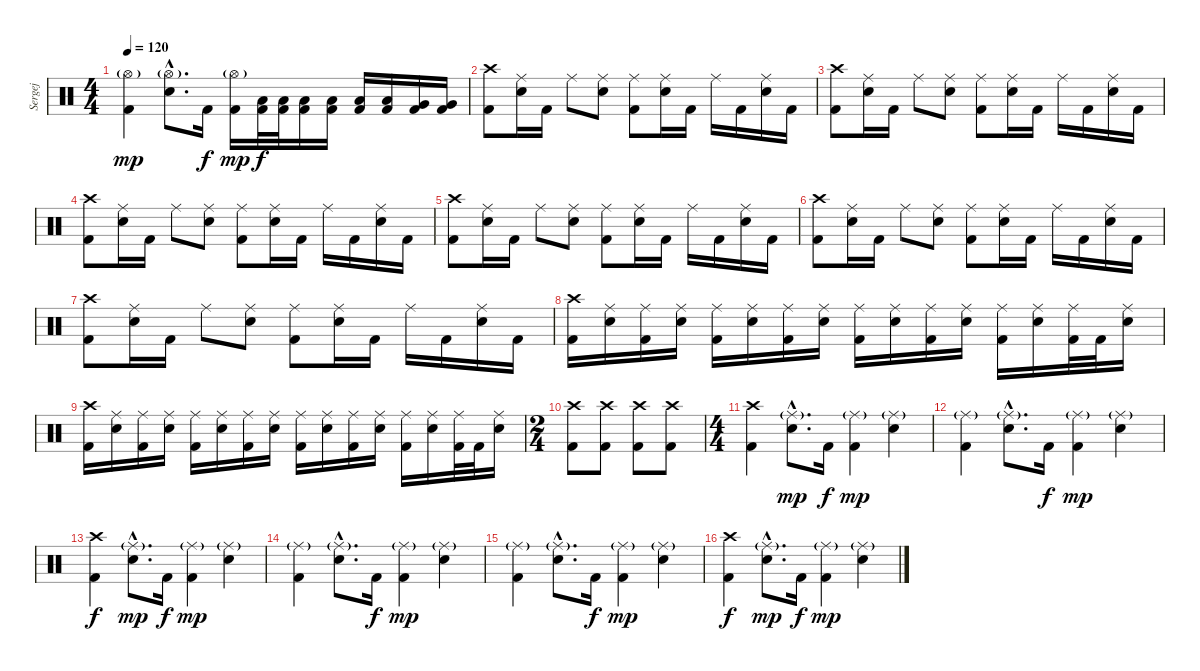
\track ("Sergej" "Sergej") {instrument percussion}
\staff {score}
\articulation defaults
\ts (4 4)
\tempo 120
\clef neutral
\ks c
("Hi-Hat (open)"{g} "Kick (hit) 2").4{dy mp} ("Hi-Hat (open)"{g hac} "Snare (hit) 2"{hac}).8{d} "Kick (hit) 2".16{dy f} ("Hi-Hat (open)"{g} "Kick (hit) 2").16{dy mp} ("Kick (hit) 2" "Low Tom (hit)").32{dy f} ("Kick (hit) 2" "Low Tom (hit)").32 ("Kick (hit) 2" "Low Tom (hit)").16 ("Kick (hit) 2" "Low Tom (hit)").16 ("Kick (hit) 2" "Low Tom (hit)").16 ("Kick (hit) 2" "Low Tom (hit)").16 ("Kick (hit) 2" "Very Low Tom (hit)").16 ("Kick (hit) 2" "Very Low Tom (hit)").16 |
("Crash high (hit)" "Kick (hit) 2").8 ("Ride (middle)" "Snare (hit) 2").16 "Kick (hit) 2".16 "Ride (middle)".8 ("Ride (middle)" "Snare (hit) 2").8 ("Ride (middle)" "Kick (hit) 2").8 ("Ride (middle)" "Snare (hit) 2").16 "Kick (hit) 2".16 "Ride (middle)".16 "Kick (hit) 2".16 ("Ride (middle)" "Snare (hit) 2").16 "Kick (hit) 2".16 |
("Crash high (hit)" "Kick (hit) 2").8 ("Ride (middle)" "Snare (hit) 2").16 "Kick (hit) 2".16 "Ride (middle)".8 ("Ride (middle)" "Snare (hit) 2").8 ("Ride (middle)" "Kick (hit) 2").8 ("Ride (middle)" "Snare (hit) 2").16 "Kick (hit) 2".16 "Ride (middle)".16 "Kick (hit) 2".16 ("Ride (middle)" "Snare (hit) 2").16 "Kick (hit) 2".16 |
("Crash high (hit)" "Kick (hit) 2").8 ("Ride (middle)" "Snare (hit) 2").16 "Kick (hit) 2".16 "Ride (middle)".8 ("Ride (middle)" "Snare (hit) 2").8 ("Ride (middle)" "Kick (hit) 2").8 ("Ride (middle)" "Snare (hit) 2").16 "Kick (hit) 2".16 "Ride (middle)".16 "Kick (hit) 2".16 ("Ride (middle)" "Snare (hit) 2").16 "Kick (hit) 2".16 |
("Crash high (hit)" "Kick (hit) 2").8 ("Ride (middle)" "Snare (hit) 2").16 "Kick (hit) 2".16 "Ride (middle)".8 ("Ride (middle)" "Snare (hit) 2").8 ("Ride (middle)" "Kick (hit) 2").8 ("Ride (middle)" "Snare (hit) 2").16 "Kick (hit) 2".16 "Ride (middle)".16 "Kick (hit) 2".16 ("Ride (middle)" "Snare (hit) 2").16 "Kick (hit) 2".16 |
("Crash high (hit)" "Kick (hit) 2").8 ("Ride (middle)" "Snare (hit) 2").16 "Kick (hit) 2".16 "Ride (middle)".8 ("Ride (middle)" "Snare (hit) 2").8 ("Ride (middle)" "Kick (hit) 2").8 ("Ride (middle)" "Snare (hit) 2").16 "Kick (hit) 2".16 "Ride (middle)".16 "Kick (hit) 2".16 ("Ride (middle)" "Snare (hit) 2").16 "Kick (hit) 2".16 |
("Crash high (hit)" "Kick (hit) 2").8 ("Ride (middle)" "Snare (hit) 2").16 "Kick (hit) 2".16 "Ride (middle)".8 ("Ride (middle)" "Snare (hit) 2").8 ("Ride (middle)" "Kick (hit) 2").8 ("Ride (middle)" "Snare (hit) 2").16 "Kick (hit) 2".16 "Ride (middle)".16 "Kick (hit) 2".16 ("Ride (middle)" "Snare (hit) 2").16 "Kick (hit) 2".16 |
("Crash high (hit)" "Kick (hit) 2").16 ("Ride (middle)" "Snare (hit) 2").16 ("Ride (middle)" "Kick (hit) 2").16 ("Ride (middle)" "Snare (hit) 2").16 ("Ride (middle)" "Kick (hit) 2").16 ("Ride (middle)" "Snare (hit) 2").16 ("Ride (middle)" "Kick (hit) 2").16 ("Ride (middle)" "Snare (hit) 2").16 ("Ride (middle)" "Kick (hit) 2").16 ("Ride (middle)" "Snare (hit) 2").16 ("Ride (middle)" "Kick (hit) 2").16 ("Ride (middle)" "Snare (hit) 2").16 ("Ride (middle)" "Kick (hit) 2").16 ("Ride (middle)" "Snare (hit) 2").16 ("Ride (middle)" "Kick (hit) 2").32 "Kick (hit) 2".32 ("Ride (middle)" "Snare (hit) 2").16 |
("Crash high (hit)" "Kick (hit) 2").16 ("Ride (middle)" "Snare (hit) 2").16 ("Ride (middle)" "Kick (hit) 2").16 ("Ride (middle)" "Snare (hit) 2").16 ("Ride (middle)" "Kick (hit) 2").16 ("Ride (middle)" "Snare (hit) 2").16 ("Ride (middle)" "Kick (hit) 2").16 ("Ride (middle)" "Snare (hit) 2").16 ("Ride (middle)" "Kick (hit) 2").16 ("Ride (middle)" "Snare (hit) 2").16 ("Ride (middle)" "Kick (hit) 2").16 ("Ride (middle)" "Snare (hit) 2").16 ("Ride (middle)" "Kick (hit) 2").16 ("Ride (middle)" "Snare (hit) 2").16 ("Ride (middle)" "Kick (hit) 2").32 "Kick (hit) 2".32 ("Ride (middle)" "Snare (hit) 2").16 |
\ts (2 4)
("Crash high (hit)" "Kick (hit) 2").8 ("Crash high (hit)" "Kick (hit) 2").8 ("Crash high (hit)" "Kick (hit) 2").8 ("Crash high (hit)" "Kick (hit) 2").8 |
\ts (4 4)
("Crash high (hit)" "Kick (hit) 2").4 ("Ride (middle)"{g hac} "Snare (hit) 2"{hac}).8{d dy mp} "Kick (hit) 2".16{dy f} ("Ride (middle)"{g} "Kick (hit) 2").4{dy mp} ("Ride (middle)"{g} "Snare (hit) 2").4 |
("Ride (middle)"{g} "Kick (hit) 2").4 ("Ride (middle)"{g hac} "Snare (hit) 2"{hac}).8{d} "Kick (hit) 2".16{dy f} ("Ride (middle)"{g} "Kick (hit) 2").4{dy mp} ("Ride (middle)"{g} "Snare (hit) 2").4 |
("Crash high (hit)" "Kick (hit) 2").4{dy f} ("Ride (middle)"{g hac} "Snare (hit) 2"{hac}).8{d dy mp} "Kick (hit) 2".16{dy f} ("Ride (middle)"{g} "Kick (hit) 2").4{dy mp} ("Ride (middle)"{g} "Snare (hit) 2").4 |
("Ride (middle)"{g} "Kick (hit) 2").4 ("Ride (middle)"{g hac} "Snare (hit) 2"{hac}).8{d} "Kick (hit) 2".16{dy f} ("Ride (middle)"{g} "Kick (hit) 2").4{dy mp} ("Ride (middle)"{g} "Snare (hit) 2").4 |
("Ride (middle)"{g} "Kick (hit) 2").4 ("Ride (middle)"{g hac} "Snare (hit) 2"{hac}).8{d} "Kick (hit) 2".16{dy f} ("Ride (middle)"{g} "Kick (hit) 2").4{dy mp} ("Ride (middle)"{g} "Snare (hit) 2").4 |
("Crash high (hit)" "Kick (hit) 2").4{dy f} ("Ride (middle)"{g hac} "Snare (hit) 2"{hac}).8{d dy mp} "Kick (hit) 2".16{dy f} ("Ride (middle)"{g} "Kick (hit) 2").4{dy mp} ("Ride (middle)"{g} "Snare (hit) 2").4
